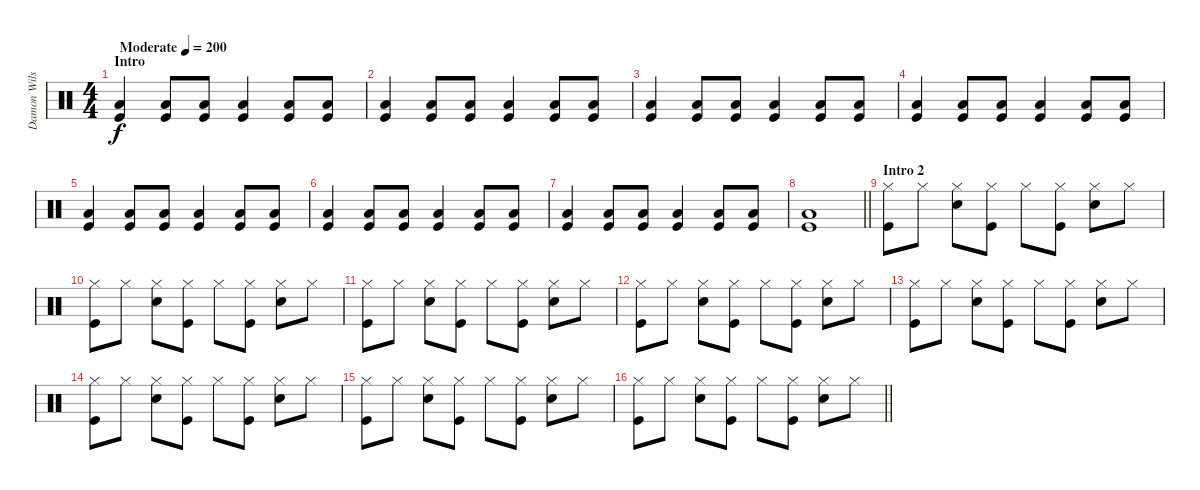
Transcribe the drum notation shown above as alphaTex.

\track ("Damon Wilson" "Damon Wils") {instrument percussion}
\staff {score}
\articulation defaults
\ts (4 4)
\section ("" "Intro")
\tempo (200 "Moderate")
\clef neutral
\ks c
("Low Tom (hit)" "Kick (hit)").4{dy f} ("Low Tom (hit)" "Kick (hit)").8 ("Low Tom (hit)" "Kick (hit)").8 ("Low Tom (hit)" "Kick (hit)").4 ("Low Tom (hit)" "Kick (hit)").8 ("Low Tom (hit)" "Kick (hit)").8 |
("Low Tom (hit)" "Kick (hit)").4 ("Low Tom (hit)" "Kick (hit)").8 ("Low Tom (hit)" "Kick (hit)").8 ("Low Tom (hit)" "Kick (hit)").4 ("Low Tom (hit)" "Kick (hit)").8 ("Low Tom (hit)" "Kick (hit)").8 |
("Low Tom (hit)" "Kick (hit)").4 ("Low Tom (hit)" "Kick (hit)").8 ("Low Tom (hit)" "Kick (hit)").8 ("Low Tom (hit)" "Kick (hit)").4 ("Low Tom (hit)" "Kick (hit)").8 ("Low Tom (hit)" "Kick (hit)").8 |
("Low Tom (hit)" "Kick (hit)").4 ("Low Tom (hit)" "Kick (hit)").8 ("Low Tom (hit)" "Kick (hit)").8 ("Low Tom (hit)" "Kick (hit)").4 ("Low Tom (hit)" "Kick (hit)").8 ("Low Tom (hit)" "Kick (hit)").8 |
("Low Tom (hit)" "Kick (hit)").4 ("Low Tom (hit)" "Kick (hit)").8 ("Low Tom (hit)" "Kick (hit)").8 ("Low Tom (hit)" "Kick (hit)").4 ("Low Tom (hit)" "Kick (hit)").8 ("Low Tom (hit)" "Kick (hit)").8 |
("Low Tom (hit)" "Kick (hit)").4 ("Low Tom (hit)" "Kick (hit)").8 ("Low Tom (hit)" "Kick (hit)").8 ("Low Tom (hit)" "Kick (hit)").4 ("Low Tom (hit)" "Kick (hit)").8 ("Low Tom (hit)" "Kick (hit)").8 |
("Low Tom (hit)" "Kick (hit)").4 ("Low Tom (hit)" "Kick (hit)").8 ("Low Tom (hit)" "Kick (hit)").8 ("Low Tom (hit)" "Kick (hit)").4 ("Low Tom (hit)" "Kick (hit)").8 ("Low Tom (hit)" "Kick (hit)").8 |
\barLineRight lightlight
("Low Tom (hit)" "Kick (hit)").1 |
\section ("" "Intro 2")
("Hi-Hat (closed)" "Kick (hit)").8 "Hi-Hat (closed)".8 ("Hi-Hat (closed)" "Snare (hit) 2").8 ("Hi-Hat (closed)" "Kick (hit)").8 "Hi-Hat (closed)".8 ("Hi-Hat (closed)" "Kick (hit)").8 ("Hi-Hat (closed)" "Snare (hit) 2").8 "Hi-Hat (closed)".8 |
("Hi-Hat (closed)" "Kick (hit)").8 "Hi-Hat (closed)".8 ("Hi-Hat (closed)" "Snare (hit) 2").8 ("Hi-Hat (closed)" "Kick (hit)").8 "Hi-Hat (closed)".8 ("Hi-Hat (closed)" "Kick (hit)").8 ("Hi-Hat (closed)" "Snare (hit) 2").8 "Hi-Hat (closed)".8 |
("Hi-Hat (closed)" "Kick (hit)").8 "Hi-Hat (closed)".8 ("Hi-Hat (closed)" "Snare (hit) 2").8 ("Hi-Hat (closed)" "Kick (hit)").8 "Hi-Hat (closed)".8 ("Hi-Hat (closed)" "Kick (hit)").8 ("Hi-Hat (closed)" "Snare (hit) 2").8 "Hi-Hat (closed)".8 |
("Hi-Hat (closed)" "Kick (hit)").8 "Hi-Hat (closed)".8 ("Hi-Hat (closed)" "Snare (hit) 2").8 ("Hi-Hat (closed)" "Kick (hit)").8 "Hi-Hat (closed)".8 ("Hi-Hat (closed)" "Kick (hit)").8 ("Hi-Hat (closed)" "Snare (hit) 2").8 "Hi-Hat (closed)".8 |
("Hi-Hat (closed)" "Kick (hit)").8 "Hi-Hat (closed)".8 ("Hi-Hat (closed)" "Snare (hit) 2").8 ("Hi-Hat (closed)" "Kick (hit)").8 "Hi-Hat (closed)".8 ("Hi-Hat (closed)" "Kick (hit)").8 ("Hi-Hat (closed)" "Snare (hit) 2").8 "Hi-Hat (closed)".8 |
("Hi-Hat (closed)" "Kick (hit)").8 "Hi-Hat (closed)".8 ("Hi-Hat (closed)" "Snare (hit) 2").8 ("Hi-Hat (closed)" "Kick (hit)").8 "Hi-Hat (closed)".8 ("Hi-Hat (closed)" "Kick (hit)").8 ("Hi-Hat (closed)" "Snare (hit) 2").8 "Hi-Hat (closed)".8 |
("Hi-Hat (closed)" "Kick (hit)").8 "Hi-Hat (closed)".8 ("Hi-Hat (closed)" "Snare (hit) 2").8 ("Hi-Hat (closed)" "Kick (hit)").8 "Hi-Hat (closed)".8 ("Hi-Hat (closed)" "Kick (hit)").8 ("Hi-Hat (closed)" "Snare (hit) 2").8 "Hi-Hat (closed)".8 |
\barLineRight lightlight
("Hi-Hat (closed)" "Kick (hit)").8 "Hi-Hat (closed)".8 ("Hi-Hat (closed)" "Snare (hit) 2").8 ("Hi-Hat (closed)" "Kick (hit)").8 "Hi-Hat (closed)".8 ("Hi-Hat (closed)" "Kick (hit)").8 ("Hi-Hat (closed)" "Snare (hit) 2").8 "Hi-Hat (closed)".8
